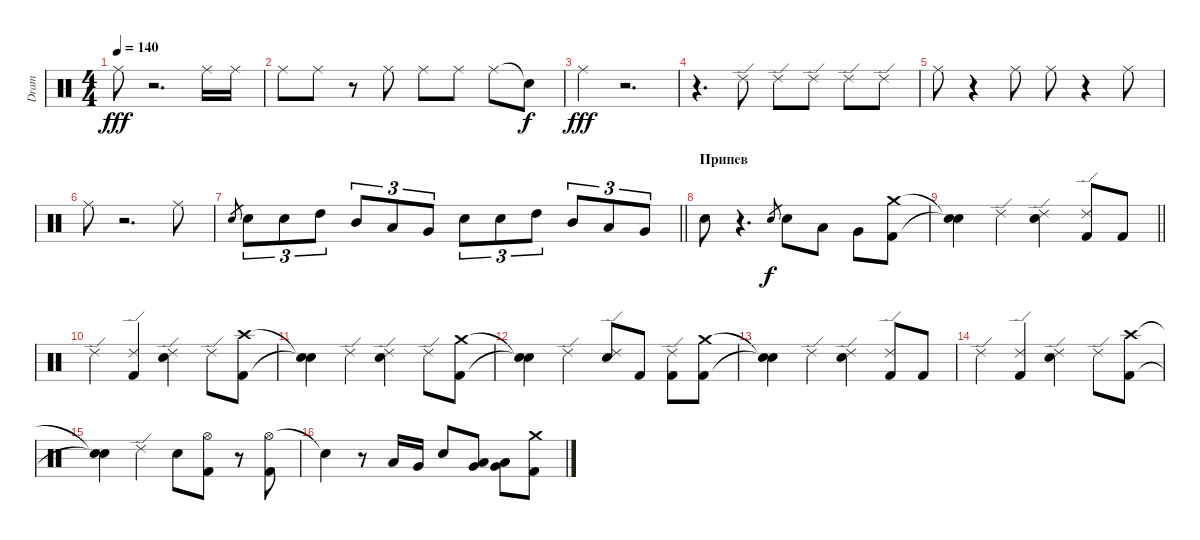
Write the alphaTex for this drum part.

\track ("Dram" "Dram") {instrument percussion}
\staff {score}
\articulation defaults
\ts (4 4)
\tempo 140
\clef neutral
\ks c "Ride (middle)".8{dy fff}
r.2{d} "Ride (middle)".16 "Ride (middle)".16 |
"Ride (middle)".8 "Ride (middle)".8 r.8 "Ride (middle)".8 "Ride (middle)".8 "Ride (middle)".8 "Ride (middle)".8 "Snare (hit)"{t}.8{dy f} |
"Ride (middle)".4{dy fff} r.2{d} |
r.4{d} "Ride (edge) 2".8 "Ride (edge) 2".8 "Ride (edge) 2".8 "Ride (edge) 2".8 "Ride (edge) 2".8 |
"Ride (middle)".8 r.4 "Ride (middle)".8 "Ride (middle)".8 r.4 "Ride (middle)".8 |
"Ride (middle)".8 r.2{d} "Ride (middle)".8 |
\barLineRight lightlight "Snare (hit) 2".8{gr} "Snare (hit) 2".8{tu (3 2)} "Snare (hit) 2".8{tu (3 2)} "High Tom (hit)".8{tu (3 2)} "Mid Tom (hit)".8{tu (3 2)} "Low Tom (hit)".8{tu (3 2)} "Very Low Tom (hit)".8{tu (3 2)} "Snare (hit) 2".8{tu (3 2)} "Snare (hit) 2".8{tu (3 2)} "High Tom (hit)".8{tu (3 2)} "Mid Tom (hit)".8{tu (3 2)} "Low Tom (hit)".8{tu (3 2)} "Very Low Tom (hit)".8{tu (3 2)}
|
\section ("" "Припев")
"Snare (hit) 2".8 r.4{d} "Snare (hit) 2".8{gr dy f} "Snare (hit) 2".8 "Low Tom (hit)".8 "Very Low Tom (hit)".8 ("Crash medium (hit)" "Kick (hit) 2").8 |
\barLineRight lightlight
("Snare (hit)"{t} "Snare (hit)"{t}).4 "Ride (edge) 2".4 ("Snare (hit) 2" "Ride (edge) 2").4 ("Kick (hit) 2" "Ride (edge) 2").8 "Kick (hit) 2".8 |
"Ride (edge) 2".4 ("Kick (hit) 2" "Ride (edge) 2").4 ("Snare (hit) 2" "Ride (edge) 2").4 "Ride (edge) 2".8 ("Crash high (hit)" "Kick (hit) 2").8 |
("Snare (hit)"{t} "Snare (hit)"{t}).4 "Ride (edge) 2".4 ("Snare (hit) 2" "Ride (edge) 2").4 "Ride (edge) 2".8 ("Crash medium (hit)" "Kick (hit) 2").8 |
("Snare (hit)"{t} "Snare (hit)"{t}).4 "Ride (edge) 2".4 ("Snare (hit) 2" "Ride (edge) 2").8 "Kick (hit) 2".8 ("Ride (edge) 2" "Kick (hit) 2").8 ("Crash medium (hit)" "Kick (hit) 2").8 |
("Snare (hit)"{t} "Snare (hit)"{t}).4 "Ride (edge) 2".4 ("Snare (hit) 2" "Ride (edge) 2").4 ("Kick (hit) 2" "Ride (edge) 2").8 "Kick (hit) 2".8 |
"Ride (edge) 2".4 ("Kick (hit) 2" "Ride (edge) 2").4 ("Snare (hit) 2" "Ride (edge) 2").4 "Ride (edge) 2".8 ("Crash high (hit)" "Kick (hit) 2").8 |
("Snare (hit)"{t} "Snare (hit)"{t}).4 "Ride (edge) 2".4 "Snare (hit) 2".8 ("Hi-Hat (open)" "Kick (hit) 2").8 r.8 ("Hi-Hat (open)" "Kick (hit) 2").8 |
"Snare (hit)"{t}.4 r.8 "Low Tom (hit)".16 "Very Low Tom (hit)".16 "Snare (hit) 2".8 ("Very Low Tom (hit)" "Low Tom (hit)").8 ("Very Low Tom (hit)" "Low Floor Tom (hit)").8 ("Crash medium (hit)" "Kick (hit) 2").8
